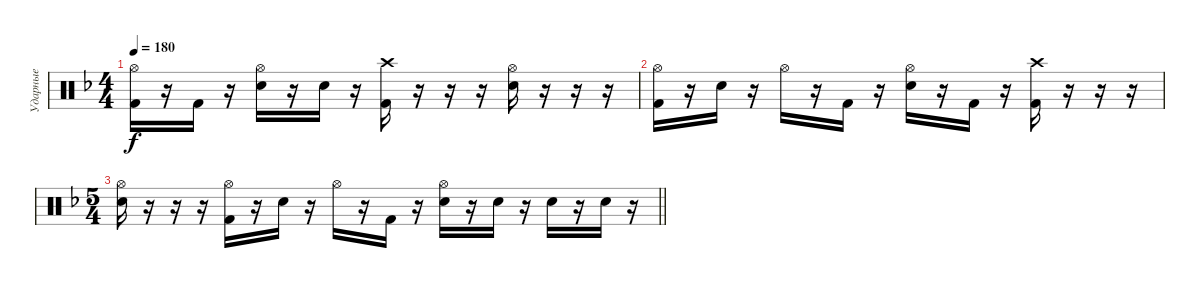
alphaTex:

\track ("Ударные" "Ударные") {instrument percussion}
\staff {score}
\articulation defaults
\ts (4 4)
\tempo 180
\clef neutral
\ks dminor
("Hi-Hat (open)" "Kick (hit) 2").16{dy f} r.16 "Kick (hit) 2".16 r.16 ("Hi-Hat (open)" "Electric Snare (hit)").16 r.16 "Electric Snare (hit)".16 r.16 ("Crash high (hit)" "Kick (hit) 2").16 r.16 r.16 r.16 ("Hi-Hat (open)" "Electric Snare (hit)").16 r.16 r.16 r.16 |
("Hi-Hat (open)" "Kick (hit) 2").16 r.16 "Electric Snare (hit)".16 r.16 "Hi-Hat (open)".16 r.16 "Kick (hit) 2".16 r.16 ("Hi-Hat (open)" "Electric Snare (hit)").16 r.16 "Kick (hit) 2".16 r.16 ("Crash high (hit)" "Kick (hit) 2").16 r.16 r.16 r.16 |
\ts (5 4)
\barLineRight lightlight
("Hi-Hat (open)" "Electric Snare (hit)").16 r.16 r.16 r.16 ("Hi-Hat (open)" "Kick (hit) 2").16 r.16 "Electric Snare (hit)".16 r.16 "Hi-Hat (open)".16 r.16 "Kick (hit) 2".16 r.16 ("Hi-Hat (open)" "Electric Snare (hit)").16 r.16 "Electric Snare (hit)".16 r.16 "Electric Snare (hit)".16 r.16 "Electric Snare (hit)".16 r.16
